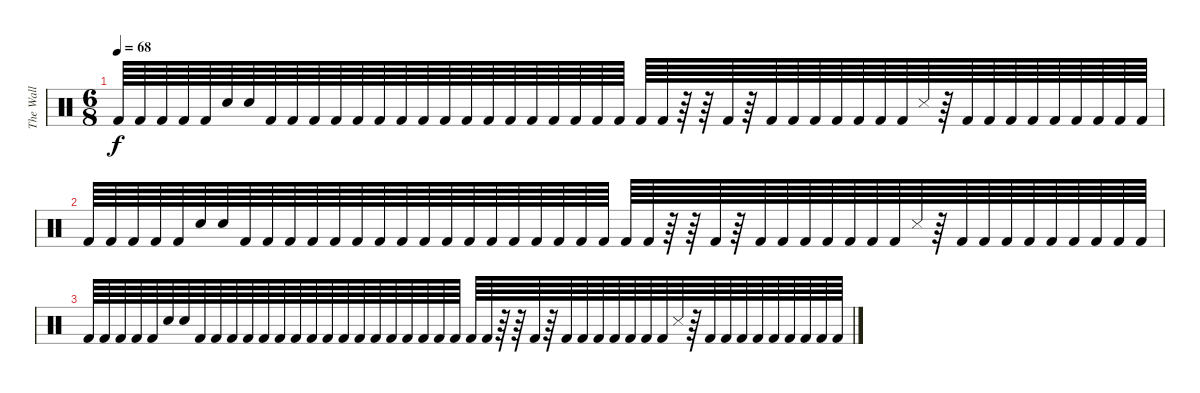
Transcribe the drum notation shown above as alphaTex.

\track ("The Wall" "The Wall") {instrument percussion}
\staff {score}
\articulation defaults
\ts (6 8)
\tempo 68
\clef neutral
\ks c "Kick (hit) 2".64{dy f volume 0} "Kick (hit) 2".64 "Kick (hit) 2".64 "Kick (hit) 2".64 "Kick (hit) 2".64 "Snare (hit)".64 "Snare (hit)".64 "Kick (hit) 2".64 "Kick (hit) 2".64 "Kick (hit) 2".64 "Kick (hit) 2".64 "Kick (hit) 2".64 "Kick (hit) 2".64 "Kick (hit) 2".64 "Kick (hit) 2".64 "Kick (hit) 2".64 "Kick (hit) 2".64 "Kick (hit) 2".64 "Kick (hit) 2".64 "Kick (hit) 2".64 "Kick (hit) 2".64 "Kick (hit) 2".64 "Kick (hit) 2".64 "Kick (hit) 2".64 "Kick (hit) 2".64 "Kick (hit) 2".64
r.64 r.64 "Kick (hit) 2".64 r.64 "Kick (hit) 2".64 "Kick (hit) 2".64 "Kick (hit) 2".64 "Kick (hit) 2".64 "Kick (hit) 2".64 "Kick (hit) 2".64 "Kick (hit) 2".64 "Metronome (hit)".64 r.64 "Kick (hit) 2".64 "Kick (hit) 2".64 "Kick (hit) 2".64 "Kick (hit) 2".64 "Kick (hit) 2".64 "Kick (hit) 2".64 "Kick (hit) 2".64 "Kick (hit) 2".64 "Kick (hit) 2".64 |
"Kick (hit) 2".64 "Kick (hit) 2".64 "Kick (hit) 2".64 "Kick (hit) 2".64 "Kick (hit) 2".64 "Snare (hit)".64 "Snare (hit)".64 "Kick (hit) 2".64 "Kick (hit) 2".64 "Kick (hit) 2".64 "Kick (hit) 2".64 "Kick (hit) 2".64 "Kick (hit) 2".64 "Kick (hit) 2".64 "Kick (hit) 2".64 "Kick (hit) 2".64 "Kick (hit) 2".64 "Kick (hit) 2".64 "Kick (hit) 2".64 "Kick (hit) 2".64 "Kick (hit) 2".64 "Kick (hit) 2".64 "Kick (hit) 2".64 "Kick (hit) 2".64 "Kick (hit) 2".64 "Kick (hit) 2".64 r.64 r.64 "Kick (hit) 2".64 r.64 "Kick (hit) 2".64 "Kick (hit) 2".64 "Kick (hit) 2".64 "Kick (hit) 2".64 "Kick (hit) 2".64 "Kick (hit) 2".64 "Kick (hit) 2".64 "Metronome (hit)".64 r.64 "Kick (hit) 2".64 "Kick (hit) 2".64 "Kick (hit) 2".64 "Kick (hit) 2".64 "Kick (hit) 2".64 "Kick (hit) 2".64 "Kick (hit) 2".64 "Kick (hit) 2".64 "Kick (hit) 2".64 |
"Kick (hit) 2".64 "Kick (hit) 2".64 "Kick (hit) 2".64 "Kick (hit) 2".64 "Kick (hit) 2".64 "Snare (hit)".64 "Snare (hit)".64 "Kick (hit) 2".64 "Kick (hit) 2".64 "Kick (hit) 2".64 "Kick (hit) 2".64 "Kick (hit) 2".64 "Kick (hit) 2".64 "Kick (hit) 2".64 "Kick (hit) 2".64 "Kick (hit) 2".64 "Kick (hit) 2".64 "Kick (hit) 2".64 "Kick (hit) 2".64 "Kick (hit) 2".64 "Kick (hit) 2".64 "Kick (hit) 2".64 "Kick (hit) 2".64 "Kick (hit) 2".64 "Kick (hit) 2".64 "Kick (hit) 2".64 r.64 r.64 "Kick (hit) 2".64 r.64 "Kick (hit) 2".64 "Kick (hit) 2".64 "Kick (hit) 2".64 "Kick (hit) 2".64 "Kick (hit) 2".64 "Kick (hit) 2".64 "Kick (hit) 2".64 "Metronome (hit)".64 r.64 "Kick (hit) 2".64 "Kick (hit) 2".64 "Kick (hit) 2".64 "Kick (hit) 2".64 "Kick (hit) 2".64 "Kick (hit) 2".64 "Kick (hit) 2".64 "Kick (hit) 2".64 "Kick (hit) 2".64
